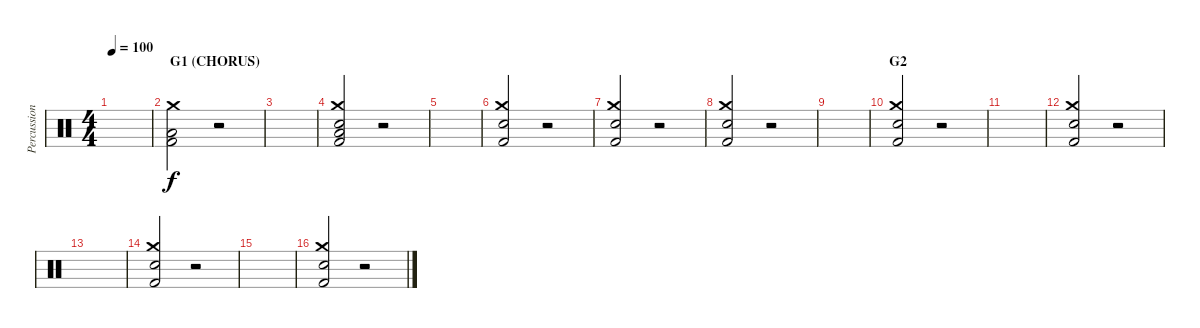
\track ("Percussion" "Percussion") {instrument percussion}
\staff {score}
\articulation defaults
\ts (4 4)
\tempo 100
\clef neutral
\ks c
|
\section ("" " G1 (CHORUS)")
("Kick (hit) 2" "Low Floor Tom (hit)" "Crash medium (hit)").2 r.2 |
|
("Kick (hit) 2" "Electric Snare (hit)" "Low Floor Tom (hit)" "Crash medium (hit)").2 r.2 |
|
("Kick (hit) 2" "Electric Snare (hit)" "Crash medium (hit)").2 r.2 |
("Kick (hit) 2" "Electric Snare (hit)" "Crash medium (hit)").2 r.2 |
("Kick (hit) 2" "Electric Snare (hit)" "Crash medium (hit)").2 r.2 |
|
\section ("" "G2")
("Kick (hit) 2" "Electric Snare (hit)" "Crash medium (hit)").2 r.2 |
|
("Kick (hit) 2" "Electric Snare (hit)" "Crash medium (hit)").2 r.2 |
|
("Kick (hit) 2" "Electric Snare (hit)" "Crash medium (hit)").2 r.2 |
|
("Kick (hit) 2" "Electric Snare (hit)" "Crash medium (hit)").2 r.2
